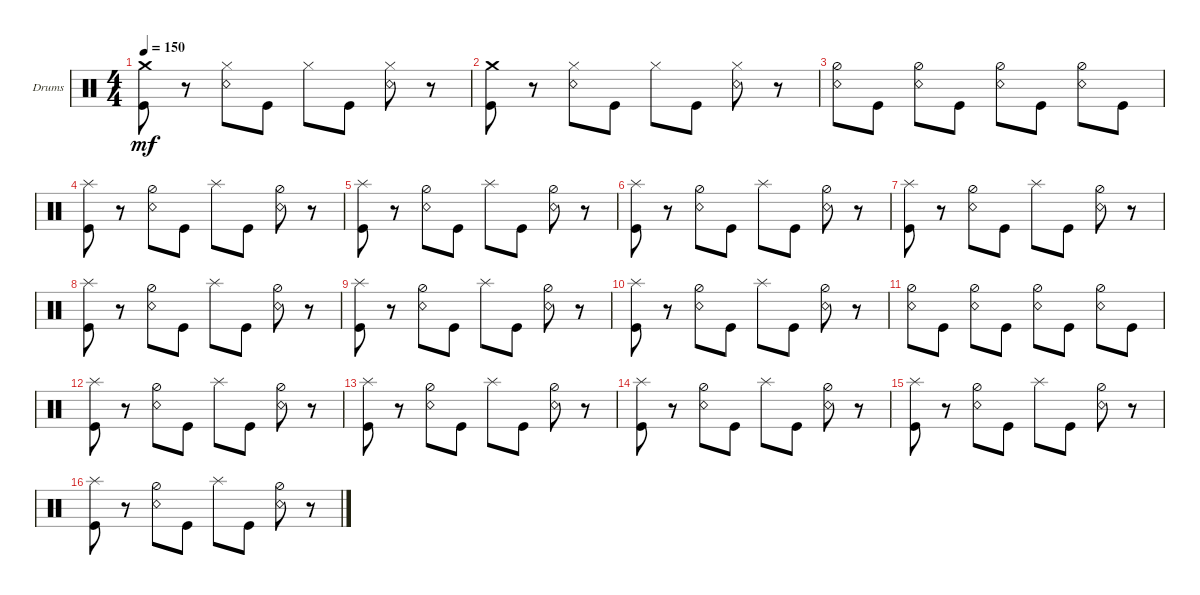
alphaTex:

\defaultSystemsLayout 4
\bracketExtendMode groupsimilarinstruments
\firstSystemTrackNameOrientation horizontal
\otherSystemsTrackNameOrientation horizontal
\track ("Drumkit" "Drums") {instrument percussion}
\staff {score}
\articulation defaults
\ts (4 4)
\tempo 150
\clef neutral
\ks c
("Kick (hit)" "Crash medium (hit)").8{dy mf} r.8 ("Hi-Hat (closed)" "Snare (rim shot)").8 "Kick (hit)".8 "Hi-Hat (closed)".8 "Kick (hit)".8 ("Hi-Hat (closed)" "Snare (rim shot)").8 r.8 |
("Kick (hit)" "Crash medium (hit)").8 r.8 ("Hi-Hat (closed)" "Snare (rim shot)").8 "Kick (hit)".8 "Hi-Hat (closed)".8 "Kick (hit)".8 ("Hi-Hat (closed)" "Snare (rim shot)").8 r.8 |
("Snare (rim shot)" "Hi-Hat (half)").8 "Kick (hit)".8 ("Snare (rim shot)" "Hi-Hat (half)").8 "Kick (hit)".8 ("Snare (rim shot)" "Hi-Hat (half)").8 "Kick (hit)".8 ("Snare (rim shot)" "Hi-Hat (half)").8 "Kick (hit)".8 |
("Kick (hit)" "Splash (hit)").8 r.8 ("Hi-Hat (half)" "Snare (rim shot)").8 "Kick (hit)".8 "Splash (hit)".8 "Kick (hit)".8 ("Hi-Hat (half)" "Snare (rim shot)").8 r.8 |
("Kick (hit)" "Splash (hit)").8 r.8 ("Hi-Hat (half)" "Snare (rim shot)").8 "Kick (hit)".8 "Splash (hit)".8 "Kick (hit)".8 ("Hi-Hat (half)" "Snare (rim shot)").8 r.8 |
("Kick (hit)" "Splash (hit)").8 r.8 ("Hi-Hat (half)" "Snare (rim shot)").8 "Kick (hit)".8 "Splash (hit)".8 "Kick (hit)".8 ("Hi-Hat (half)" "Snare (rim shot)").8 r.8 |
("Kick (hit)" "Splash (hit)").8 r.8 ("Hi-Hat (half)" "Snare (rim shot)").8 "Kick (hit)".8 "Splash (hit)".8 "Kick (hit)".8 ("Hi-Hat (half)" "Snare (rim shot)").8 r.8 |
("Kick (hit)" "Splash (hit)").8 r.8 ("Hi-Hat (half)" "Snare (rim shot)").8 "Kick (hit)".8 "Splash (hit)".8 "Kick (hit)".8 ("Hi-Hat (half)" "Snare (rim shot)").8 r.8 |
("Kick (hit)" "Splash (hit)").8 r.8 ("Hi-Hat (half)" "Snare (rim shot)").8 "Kick (hit)".8 "Splash (hit)".8 "Kick (hit)".8 ("Hi-Hat (half)" "Snare (rim shot)").8 r.8 |
("Kick (hit)" "Splash (hit)").8 r.8 ("Hi-Hat (half)" "Snare (rim shot)").8 "Kick (hit)".8 "Splash (hit)".8 "Kick (hit)".8 ("Hi-Hat (half)" "Snare (rim shot)").8 r.8 |
("Snare (rim shot)" "Hi-Hat (half)").8 "Kick (hit)".8 ("Snare (rim shot)" "Hi-Hat (half)").8 "Kick (hit)".8 ("Snare (rim shot)" "Hi-Hat (half)").8 "Kick (hit)".8 ("Snare (rim shot)" "Hi-Hat (half)").8 "Kick (hit)".8 |
("Kick (hit)" "Splash (hit)").8 r.8 ("Hi-Hat (half)" "Snare (rim shot)").8 "Kick (hit)".8 "Splash (hit)".8 "Kick (hit)".8 ("Hi-Hat (half)" "Snare (rim shot)").8 r.8 |
("Kick (hit)" "Splash (hit)").8 r.8 ("Hi-Hat (half)" "Snare (rim shot)").8 "Kick (hit)".8 "Splash (hit)".8 "Kick (hit)".8 ("Hi-Hat (half)" "Snare (rim shot)").8 r.8 |
("Kick (hit)" "Splash (hit)").8 r.8 ("Hi-Hat (half)" "Snare (rim shot)").8 "Kick (hit)".8 "Splash (hit)".8 "Kick (hit)".8 ("Hi-Hat (half)" "Snare (rim shot)").8 r.8 |
("Kick (hit)" "Splash (hit)").8 r.8 ("Hi-Hat (half)" "Snare (rim shot)").8 "Kick (hit)".8 "Splash (hit)".8 "Kick (hit)".8 ("Hi-Hat (half)" "Snare (rim shot)").8 r.8 |
("Kick (hit)" "Splash (hit)").8 r.8 ("Hi-Hat (half)" "Snare (rim shot)").8 "Kick (hit)".8 "Splash (hit)".8 "Kick (hit)".8 ("Hi-Hat (half)" "Snare (rim shot)").8 r.8
